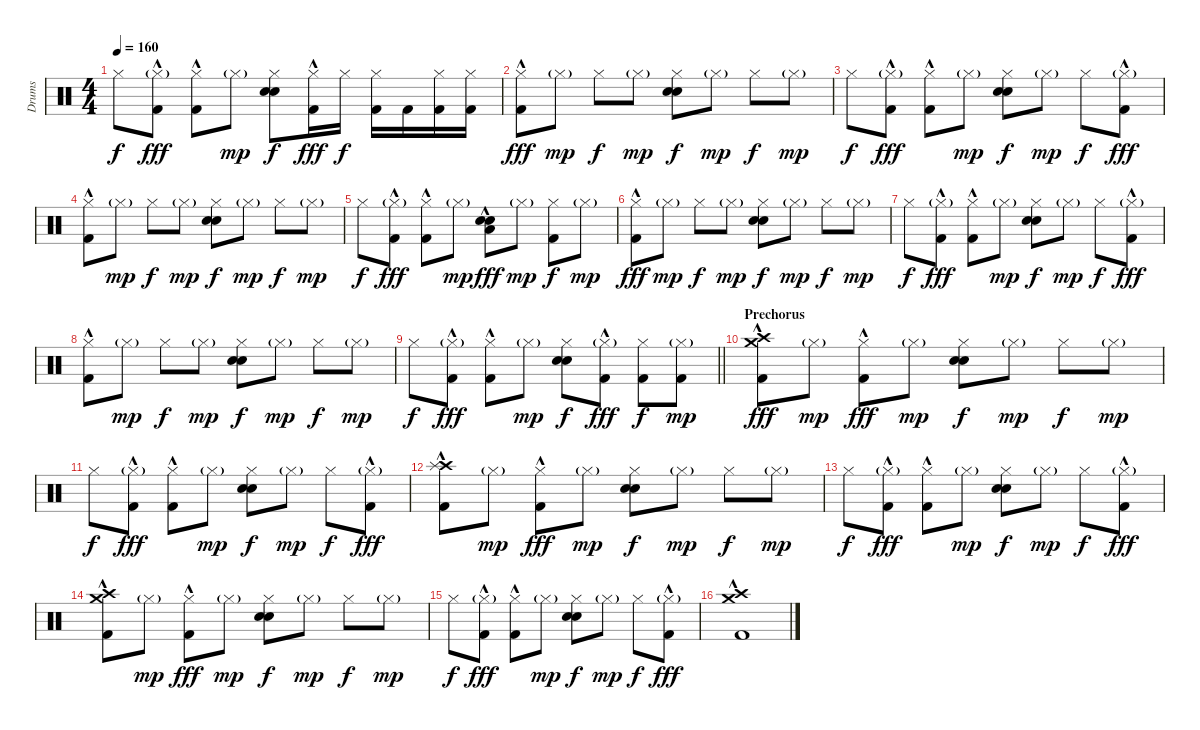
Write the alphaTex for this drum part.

\track ("Drums" "Drums") {instrument percussion}
\staff {score}
\articulation defaults
\ts (4 4)
\tempo 160
\clef neutral
\ks c "Hi-Hat (closed)".8{dy f}
("Hi-Hat (closed)"{g} "Kick (hit) 2"{hac}).8{dy fff} ("Hi-Hat (closed)" "Kick (hit) 2"{hac}).8 "Hi-Hat (closed)"{g}.8{dy mp} ("Hi-Hat (closed)" "Hand Clap (hit)" "Electric Snare (hit)").8{dy f} ("Hi-Hat (closed)" "Kick (hit) 2"{hac}).16{dy fff} "Hi-Hat (closed)".16{dy f} ("Hi-Hat (closed)" "Kick (hit) 2").16 "Kick (hit) 2".16 ("Hi-Hat (closed)" "Kick (hit) 2").16 ("Hi-Hat (closed)" "Kick (hit) 2").16 |
("Hi-Hat (closed)" "Kick (hit) 2"{hac}).8{dy fff} "Hi-Hat (closed)"{g}.8{dy mp} "Hi-Hat (closed)".8{dy f} "Hi-Hat (closed)"{g}.8{dy mp} ("Hi-Hat (closed)" "Hand Clap (hit)" "Electric Snare (hit)").8{dy f} "Hi-Hat (closed)"{g}.8{dy mp} "Hi-Hat (closed)".8{dy f} "Hi-Hat (closed)"{g}.8{dy mp} |
"Hi-Hat (closed)".8{dy f} ("Hi-Hat (closed)"{g} "Kick (hit) 2"{hac}).8{dy fff} ("Hi-Hat (closed)" "Kick (hit) 2"{hac}).8 "Hi-Hat (closed)"{g}.8{dy mp} ("Hi-Hat (closed)" "Hand Clap (hit)" "Electric Snare (hit)").8{dy f} "Hi-Hat (closed)"{g}.8{dy mp} "Hi-Hat (closed)".8{dy f} ("Hi-Hat (closed)"{g} "Kick (hit) 2"{hac}).8{dy fff} |
("Hi-Hat (closed)" "Kick (hit) 2"{hac}).8 "Hi-Hat (closed)"{g}.8{dy mp} "Hi-Hat (closed)".8{dy f} "Hi-Hat (closed)"{g}.8{dy mp} ("Hi-Hat (closed)" "Hand Clap (hit)" "Electric Snare (hit)").8{dy f} "Hi-Hat (closed)"{g}.8{dy mp} "Hi-Hat (closed)".8{dy f} "Hi-Hat (closed)"{g}.8{dy mp} |
"Hi-Hat (closed)".8{dy f} ("Hi-Hat (closed)"{g} "Kick (hit) 2"{hac}).8{dy fff} ("Hi-Hat (closed)" "Kick (hit) 2"{hac}).8 "Hi-Hat (closed)"{g}.8{dy mp} ("Hand Clap (hit)"{hac} "Electric Snare (hit)" "Low Floor Tom (hit)").8{dy fff} "Hi-Hat (closed)"{g}.8{dy mp} ("Hi-Hat (closed)" "Kick (hit) 2").8{dy f} "Hi-Hat (closed)"{g}.8{dy mp} |
("Hi-Hat (closed)" "Kick (hit) 2"{hac}).8{dy fff} "Hi-Hat (closed)"{g}.8{dy mp} "Hi-Hat (closed)".8{dy f} "Hi-Hat (closed)"{g}.8{dy mp} ("Hi-Hat (closed)" "Hand Clap (hit)" "Electric Snare (hit)").8{dy f} "Hi-Hat (closed)"{g}.8{dy mp} "Hi-Hat (closed)".8{dy f} "Hi-Hat (closed)"{g}.8{dy mp} |
"Hi-Hat (closed)".8{dy f} ("Hi-Hat (closed)"{g} "Kick (hit) 2"{hac}).8{dy fff} ("Hi-Hat (closed)" "Kick (hit) 2"{hac}).8 "Hi-Hat (closed)"{g}.8{dy mp} ("Hi-Hat (closed)" "Hand Clap (hit)" "Electric Snare (hit)").8{dy f} "Hi-Hat (closed)"{g}.8{dy mp} "Hi-Hat (closed)".8{dy f} ("Hi-Hat (closed)"{g} "Kick (hit) 2"{hac}).8{dy fff} |
("Hi-Hat (closed)" "Kick (hit) 2"{hac}).8 "Hi-Hat (closed)"{g}.8{dy mp} "Hi-Hat (closed)".8{dy f} "Hi-Hat (closed)"{g}.8{dy mp} ("Hi-Hat (closed)" "Hand Clap (hit)" "Electric Snare (hit)").8{dy f} "Hi-Hat (closed)"{g}.8{dy mp} "Hi-Hat (closed)".8{dy f} "Hi-Hat (closed)"{g}.8{dy mp} |
\barLineRight lightlight "Hi-Hat (closed)".8{dy f}
("Hi-Hat (closed)"{g} "Kick (hit) 2"{hac}).8{dy fff} ("Hi-Hat (closed)" "Kick (hit) 2"{hac}).8 "Hi-Hat (closed)"{g}.8{dy mp} ("Hi-Hat (closed)" "Hand Clap (hit)" "Hand Clap (hit)").8{dy f} ("Hi-Hat (closed)"{g} "Kick (hit) 2"{hac}).8{dy fff} ("Hi-Hat (closed)" "Kick (hit) 2").8{dy f} ("Hi-Hat (closed)"{g} "Kick (hit) 2").8{dy mp} |
\section ("" "Prechorus")
("Crash high (hit)" "Crash medium (hit)" "Kick (hit) 2"{hac}).8{dy fff} "Hi-Hat (closed)"{g}.8{dy mp} ("Hi-Hat (closed)" "Kick (hit) 2"{hac}).8{dy fff} "Hi-Hat (closed)"{g}.8{dy mp} ("Hi-Hat (closed)" "Hand Clap (hit)" "Electric Snare (hit)").8{dy f} "Hi-Hat (closed)"{g}.8{dy mp} "Hi-Hat (closed)".8{dy f} "Hi-Hat (closed)"{g}.8{dy mp} |
"Hi-Hat (closed)".8{dy f} ("Hi-Hat (closed)"{g} "Kick (hit) 2"{hac}).8{dy fff} ("Hi-Hat (closed)" "Kick (hit) 2"{hac}).8 "Hi-Hat (closed)"{g}.8{dy mp} ("Hi-Hat (closed)" "Hand Clap (hit)" "Electric Snare (hit)").8{dy f} "Hi-Hat (closed)"{g}.8{dy mp} "Hi-Hat (closed)".8{dy f} ("Hi-Hat (closed)"{g} "Kick (hit) 2"{hac}).8{dy fff} |
("Crash high (hit)" "Splash (hit)" "Kick (hit) 2"{hac}).8 "Hi-Hat (closed)"{g}.8{dy mp} ("Hi-Hat (closed)" "Kick (hit) 2"{hac}).8{dy fff} "Hi-Hat (closed)"{g}.8{dy mp} ("Hi-Hat (closed)" "Hand Clap (hit)" "Electric Snare (hit)").8{dy f} "Hi-Hat (closed)"{g}.8{dy mp} "Hi-Hat (closed)".8{dy f} "Hi-Hat (closed)"{g}.8{dy mp} |
"Hi-Hat (closed)".8{dy f} ("Hi-Hat (closed)"{g} "Kick (hit) 2"{hac}).8{dy fff} ("Hi-Hat (closed)" "Kick (hit) 2"{hac}).8 "Hi-Hat (closed)"{g}.8{dy mp} ("Hi-Hat (closed)" "Hand Clap (hit)" "Electric Snare (hit)").8{dy f} "Hi-Hat (closed)"{g}.8{dy mp} "Hi-Hat (closed)".8{dy f} ("Hi-Hat (closed)"{g} "Kick (hit) 2"{hac}).8{dy fff} |
("Crash high (hit)" "Crash medium (hit)" "Kick (hit) 2"{hac}).8 "Hi-Hat (closed)"{g}.8{dy mp} ("Hi-Hat (closed)" "Kick (hit) 2"{hac}).8{dy fff} "Hi-Hat (closed)"{g}.8{dy mp} ("Hi-Hat (closed)" "Hand Clap (hit)" "Electric Snare (hit)").8{dy f} "Hi-Hat (closed)"{g}.8{dy mp} "Hi-Hat (closed)".8{dy f} "Hi-Hat (closed)"{g}.8{dy mp} |
"Hi-Hat (closed)".8{dy f} ("Hi-Hat (closed)"{g} "Kick (hit) 2"{hac}).8{dy fff} ("Hi-Hat (closed)" "Kick (hit) 2"{hac}).8 "Hi-Hat (closed)"{g}.8{dy mp} ("Hi-Hat (closed)" "Hand Clap (hit)" "Electric Snare (hit)").8{dy f} "Hi-Hat (closed)"{g}.8{dy mp} "Hi-Hat (closed)".8{dy f} ("Hi-Hat (closed)"{g} "Kick (hit) 2"{hac}).8{dy fff} |
("Crash high (hit)" "Crash medium (hit)" "Kick (hit) 2"{hac}).1
